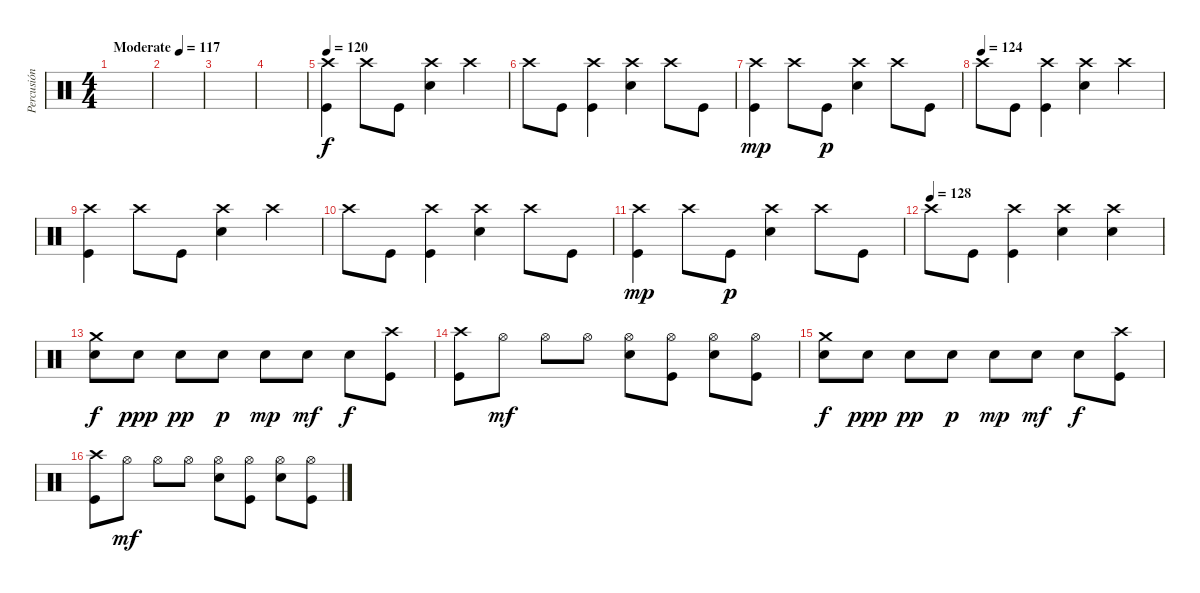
\track ("Percusión" "Percusión") {instrument percussion}
\staff {score}
\articulation defaults
\ts (4 4)
\tempo (117 "Moderate")
\clef neutral
\ks c
|
|
|
|
\tempo 120
("Kick (hit)" "Crash high (hit)").4 "Crash high (hit)".8 "Kick (hit)".8 ("Snare (hit) 2" "Crash high (hit)").4 "Crash high (hit)".4 |
"Crash high (hit)".8 "Kick (hit)".8 ("Kick (hit)" "Crash high (hit)").4 ("Snare (hit) 2" "Crash high (hit)").4 "Crash high (hit)".8 "Kick (hit)".8 |
("Kick (hit)" "Crash high (hit)").4{dy mp} "Crash high (hit)".8 "Kick (hit)".8{dy p} ("Snare (hit) 2" "Crash high (hit)").4 "Crash high (hit)".8 "Kick (hit)".8 |
\tempo (124)
"Crash high (hit)".8 "Kick (hit)".8 ("Kick (hit)" "Crash high (hit)").4 ("Snare (hit) 2" "Crash high (hit)").4 "Crash high (hit)".4 |
("Kick (hit)" "Crash high (hit)").4 "Crash high (hit)".8 "Kick (hit)".8 ("Snare (hit) 2" "Crash high (hit)").4 "Crash high (hit)".4 |
"Crash high (hit)".8 "Kick (hit)".8 ("Kick (hit)" "Crash high (hit)").4 ("Snare (hit) 2" "Crash high (hit)").4 "Crash high (hit)".8 "Kick (hit)".8 |
("Kick (hit)" "Crash high (hit)").4{dy mp} "Crash high (hit)".8 "Kick (hit)".8{dy p} ("Snare (hit) 2" "Crash high (hit)").4 "Crash high (hit)".8 "Kick (hit)".8 |
\tempo (128)
"Crash high (hit)".8 "Kick (hit)".8 ("Kick (hit)" "Crash high (hit)").4 ("Snare (hit) 2" "Crash high (hit)").4 ("Snare (hit) 2" "Crash high (hit)").4 |
("Snare (hit) 2" "Crash medium (hit)").8{dy f} "Snare (hit) 2".8{dy ppp} "Snare (hit) 2".8{dy pp} "Snare (hit) 2".8{dy p} "Snare (hit) 2".8{dy mp} "Snare (hit) 2".8{dy mf} "Snare (hit) 2".8{dy f} ("Kick (hit)" "Crash high (hit)").8 |
("Kick (hit)" "Crash high (hit)").8 "Hi-Hat (open)".8{dy mf} "Hi-Hat (open)".8 "Hi-Hat (open)".8 ("Snare (hit) 2" "Hi-Hat (open)").8 ("Kick (hit)" "Hi-Hat (open)").8 ("Snare (hit) 2" "Hi-Hat (open)").8 ("Kick (hit)" "Hi-Hat (open)").8 |
("Snare (hit) 2" "Crash medium (hit)").8{dy f} "Snare (hit) 2".8{dy ppp} "Snare (hit) 2".8{dy pp} "Snare (hit) 2".8{dy p} "Snare (hit) 2".8{dy mp} "Snare (hit) 2".8{dy mf} "Snare (hit) 2".8{dy f} ("Kick (hit)" "Crash high (hit)").8 |
("Kick (hit)" "Crash high (hit)").8 "Hi-Hat (open)".8{dy mf} "Hi-Hat (open)".8 "Hi-Hat (open)".8 ("Snare (hit) 2" "Hi-Hat (open)").8 ("Kick (hit)" "Hi-Hat (open)").8 ("Snare (hit) 2" "Hi-Hat (open)").8 ("Kick (hit)" "Hi-Hat (open)").8
